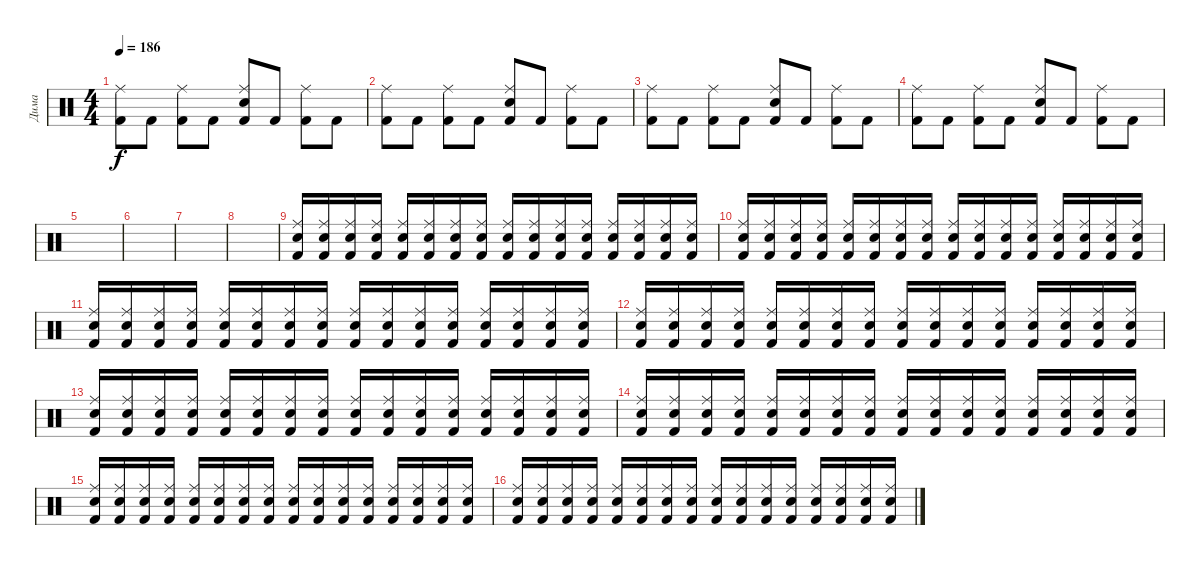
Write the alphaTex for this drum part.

\track ("Дима" "Дима") {instrument percussion}
\staff {score}
\articulation defaults
\ts (4 4)
\tempo 186
\clef neutral
\ks c
("Kick (hit) 2" "Ride (middle)").8{dy f} "Kick (hit) 2".8 ("Kick (hit) 2" "Ride (middle)").8 "Kick (hit) 2".8 ("Kick (hit) 2" "Snare (hit) 2" "Ride (middle)").8 "Kick (hit) 2".8 ("Kick (hit) 2" "Ride (middle)").8 "Kick (hit) 2".8 |
("Kick (hit) 2" "Ride (middle)").8 "Kick (hit) 2".8 ("Kick (hit) 2" "Ride (middle)").8 "Kick (hit) 2".8 ("Kick (hit) 2" "Snare (hit) 2" "Ride (middle)").8 "Kick (hit) 2".8 ("Kick (hit) 2" "Ride (middle)").8 "Kick (hit) 2".8 |
("Kick (hit) 2" "Ride (middle)").8 "Kick (hit) 2".8 ("Kick (hit) 2" "Ride (middle)").8 "Kick (hit) 2".8 ("Kick (hit) 2" "Snare (hit) 2" "Ride (middle)").8 "Kick (hit) 2".8 ("Kick (hit) 2" "Ride (middle)").8 "Kick (hit) 2".8 |
("Kick (hit) 2" "Ride (middle)").8 "Kick (hit) 2".8 ("Kick (hit) 2" "Ride (middle)").8 "Kick (hit) 2".8 ("Kick (hit) 2" "Snare (hit) 2" "Ride (middle)").8 "Kick (hit) 2".8 ("Kick (hit) 2" "Ride (middle)").8 "Kick (hit) 2".8 |
|
|
|
|
("Kick (hit) 2" "Ride (middle)" "Snare (hit) 2").16 ("Kick (hit) 2" "Ride (middle)" "Snare (hit) 2").16 ("Kick (hit) 2" "Ride (middle)" "Snare (hit) 2").16 ("Kick (hit) 2" "Ride (middle)" "Snare (hit) 2").16 ("Kick (hit) 2" "Ride (middle)" "Snare (hit) 2").16 ("Kick (hit) 2" "Ride (middle)" "Snare (hit) 2").16 ("Kick (hit) 2" "Ride (middle)" "Snare (hit) 2").16 ("Kick (hit) 2" "Ride (middle)" "Snare (hit) 2").16 ("Kick (hit) 2" "Ride (middle)" "Snare (hit) 2").16 ("Kick (hit) 2" "Ride (middle)" "Snare (hit) 2").16 ("Kick (hit) 2" "Ride (middle)" "Snare (hit) 2").16 ("Kick (hit) 2" "Ride (middle)" "Snare (hit) 2").16 ("Kick (hit) 2" "Ride (middle)" "Snare (hit) 2").16 ("Kick (hit) 2" "Ride (middle)" "Snare (hit) 2").16 ("Kick (hit) 2" "Ride (middle)" "Snare (hit) 2").16 ("Kick (hit) 2" "Ride (middle)" "Snare (hit) 2").16 |
("Kick (hit) 2" "Ride (middle)" "Snare (hit) 2").16 ("Kick (hit) 2" "Ride (middle)" "Snare (hit) 2").16 ("Kick (hit) 2" "Ride (middle)" "Snare (hit) 2").16 ("Kick (hit) 2" "Ride (middle)" "Snare (hit) 2").16 ("Kick (hit) 2" "Ride (middle)" "Snare (hit) 2").16 ("Kick (hit) 2" "Ride (middle)" "Snare (hit) 2").16 ("Kick (hit) 2" "Ride (middle)" "Snare (hit) 2").16 ("Kick (hit) 2" "Ride (middle)" "Snare (hit) 2").16 ("Kick (hit) 2" "Ride (middle)" "Snare (hit) 2").16 ("Kick (hit) 2" "Ride (middle)" "Snare (hit) 2").16 ("Kick (hit) 2" "Ride (middle)" "Snare (hit) 2").16 ("Kick (hit) 2" "Ride (middle)" "Snare (hit) 2").16 ("Kick (hit) 2" "Ride (middle)" "Snare (hit) 2").16 ("Kick (hit) 2" "Ride (middle)" "Snare (hit) 2").16 ("Kick (hit) 2" "Ride (middle)" "Snare (hit) 2").16 ("Kick (hit) 2" "Ride (middle)" "Snare (hit) 2").16 |
("Kick (hit) 2" "Ride (middle)" "Snare (hit) 2").16 ("Kick (hit) 2" "Ride (middle)" "Snare (hit) 2").16 ("Kick (hit) 2" "Ride (middle)" "Snare (hit) 2").16 ("Kick (hit) 2" "Ride (middle)" "Snare (hit) 2").16 ("Kick (hit) 2" "Ride (middle)" "Snare (hit) 2").16 ("Kick (hit) 2" "Ride (middle)" "Snare (hit) 2").16 ("Kick (hit) 2" "Ride (middle)" "Snare (hit) 2").16 ("Kick (hit) 2" "Ride (middle)" "Snare (hit) 2").16 ("Kick (hit) 2" "Ride (middle)" "Snare (hit) 2").16 ("Kick (hit) 2" "Ride (middle)" "Snare (hit) 2").16 ("Kick (hit) 2" "Ride (middle)" "Snare (hit) 2").16 ("Kick (hit) 2" "Ride (middle)" "Snare (hit) 2").16 ("Kick (hit) 2" "Ride (middle)" "Snare (hit) 2").16 ("Kick (hit) 2" "Ride (middle)" "Snare (hit) 2").16 ("Kick (hit) 2" "Ride (middle)" "Snare (hit) 2").16 ("Kick (hit) 2" "Ride (middle)" "Snare (hit) 2").16 |
("Kick (hit) 2" "Ride (middle)" "Snare (hit) 2").16 ("Kick (hit) 2" "Ride (middle)" "Snare (hit) 2").16 ("Kick (hit) 2" "Ride (middle)" "Snare (hit) 2").16 ("Kick (hit) 2" "Ride (middle)" "Snare (hit) 2").16 ("Kick (hit) 2" "Ride (middle)" "Snare (hit) 2").16 ("Kick (hit) 2" "Ride (middle)" "Snare (hit) 2").16 ("Kick (hit) 2" "Ride (middle)" "Snare (hit) 2").16 ("Kick (hit) 2" "Ride (middle)" "Snare (hit) 2").16 ("Kick (hit) 2" "Ride (middle)" "Snare (hit) 2").16 ("Kick (hit) 2" "Ride (middle)" "Snare (hit) 2").16 ("Kick (hit) 2" "Ride (middle)" "Snare (hit) 2").16 ("Kick (hit) 2" "Ride (middle)" "Snare (hit) 2").16 ("Kick (hit) 2" "Ride (middle)" "Snare (hit) 2").16 ("Kick (hit) 2" "Ride (middle)" "Snare (hit) 2").16 ("Kick (hit) 2" "Ride (middle)" "Snare (hit) 2").16 ("Kick (hit) 2" "Ride (middle)" "Snare (hit) 2").16 |
("Kick (hit) 2" "Ride (middle)" "Snare (hit) 2").16 ("Kick (hit) 2" "Ride (middle)" "Snare (hit) 2").16 ("Kick (hit) 2" "Ride (middle)" "Snare (hit) 2").16 ("Kick (hit) 2" "Ride (middle)" "Snare (hit) 2").16 ("Kick (hit) 2" "Ride (middle)" "Snare (hit) 2").16 ("Kick (hit) 2" "Ride (middle)" "Snare (hit) 2").16 ("Kick (hit) 2" "Ride (middle)" "Snare (hit) 2").16 ("Kick (hit) 2" "Ride (middle)" "Snare (hit) 2").16 ("Kick (hit) 2" "Ride (middle)" "Snare (hit) 2").16 ("Kick (hit) 2" "Ride (middle)" "Snare (hit) 2").16 ("Kick (hit) 2" "Ride (middle)" "Snare (hit) 2").16 ("Kick (hit) 2" "Ride (middle)" "Snare (hit) 2").16 ("Kick (hit) 2" "Ride (middle)" "Snare (hit) 2").16 ("Kick (hit) 2" "Ride (middle)" "Snare (hit) 2").16 ("Kick (hit) 2" "Ride (middle)" "Snare (hit) 2").16 ("Kick (hit) 2" "Ride (middle)" "Snare (hit) 2").16 |
("Kick (hit) 2" "Ride (middle)" "Snare (hit) 2").16 ("Kick (hit) 2" "Ride (middle)" "Snare (hit) 2").16 ("Kick (hit) 2" "Ride (middle)" "Snare (hit) 2").16 ("Kick (hit) 2" "Ride (middle)" "Snare (hit) 2").16 ("Kick (hit) 2" "Ride (middle)" "Snare (hit) 2").16 ("Kick (hit) 2" "Ride (middle)" "Snare (hit) 2").16 ("Kick (hit) 2" "Ride (middle)" "Snare (hit) 2").16 ("Kick (hit) 2" "Ride (middle)" "Snare (hit) 2").16 ("Kick (hit) 2" "Ride (middle)" "Snare (hit) 2").16 ("Kick (hit) 2" "Ride (middle)" "Snare (hit) 2").16 ("Kick (hit) 2" "Ride (middle)" "Snare (hit) 2").16 ("Kick (hit) 2" "Ride (middle)" "Snare (hit) 2").16 ("Kick (hit) 2" "Ride (middle)" "Snare (hit) 2").16 ("Kick (hit) 2" "Ride (middle)" "Snare (hit) 2").16 ("Kick (hit) 2" "Ride (middle)" "Snare (hit) 2").16 ("Kick (hit) 2" "Ride (middle)" "Snare (hit) 2").16 |
("Kick (hit) 2" "Ride (middle)" "Snare (hit) 2").16 ("Kick (hit) 2" "Ride (middle)" "Snare (hit) 2").16 ("Kick (hit) 2" "Ride (middle)" "Snare (hit) 2").16 ("Kick (hit) 2" "Ride (middle)" "Snare (hit) 2").16 ("Kick (hit) 2" "Ride (middle)" "Snare (hit) 2").16 ("Kick (hit) 2" "Ride (middle)" "Snare (hit) 2").16 ("Kick (hit) 2" "Ride (middle)" "Snare (hit) 2").16 ("Kick (hit) 2" "Ride (middle)" "Snare (hit) 2").16 ("Kick (hit) 2" "Ride (middle)" "Snare (hit) 2").16 ("Kick (hit) 2" "Ride (middle)" "Snare (hit) 2").16 ("Kick (hit) 2" "Ride (middle)" "Snare (hit) 2").16 ("Kick (hit) 2" "Ride (middle)" "Snare (hit) 2").16 ("Kick (hit) 2" "Ride (middle)" "Snare (hit) 2").16 ("Kick (hit) 2" "Ride (middle)" "Snare (hit) 2").16 ("Kick (hit) 2" "Ride (middle)" "Snare (hit) 2").16 ("Kick (hit) 2" "Ride (middle)" "Snare (hit) 2").16 |
("Kick (hit) 2" "Ride (middle)" "Snare (hit) 2").16 ("Kick (hit) 2" "Ride (middle)" "Snare (hit) 2").16 ("Kick (hit) 2" "Ride (middle)" "Snare (hit) 2").16 ("Kick (hit) 2" "Ride (middle)" "Snare (hit) 2").16 ("Kick (hit) 2" "Ride (middle)" "Snare (hit) 2").16 ("Kick (hit) 2" "Ride (middle)" "Snare (hit) 2").16 ("Kick (hit) 2" "Ride (middle)" "Snare (hit) 2").16 ("Kick (hit) 2" "Ride (middle)" "Snare (hit) 2").16 ("Kick (hit) 2" "Ride (middle)" "Snare (hit) 2").16 ("Kick (hit) 2" "Ride (middle)" "Snare (hit) 2").16 ("Kick (hit) 2" "Ride (middle)" "Snare (hit) 2").16 ("Kick (hit) 2" "Ride (middle)" "Snare (hit) 2").16 ("Kick (hit) 2" "Ride (middle)" "Snare (hit) 2").16 ("Kick (hit) 2" "Ride (middle)" "Snare (hit) 2").16 ("Kick (hit) 2" "Ride (middle)" "Snare (hit) 2").16 ("Kick (hit) 2" "Ride (middle)" "Snare (hit) 2").16
